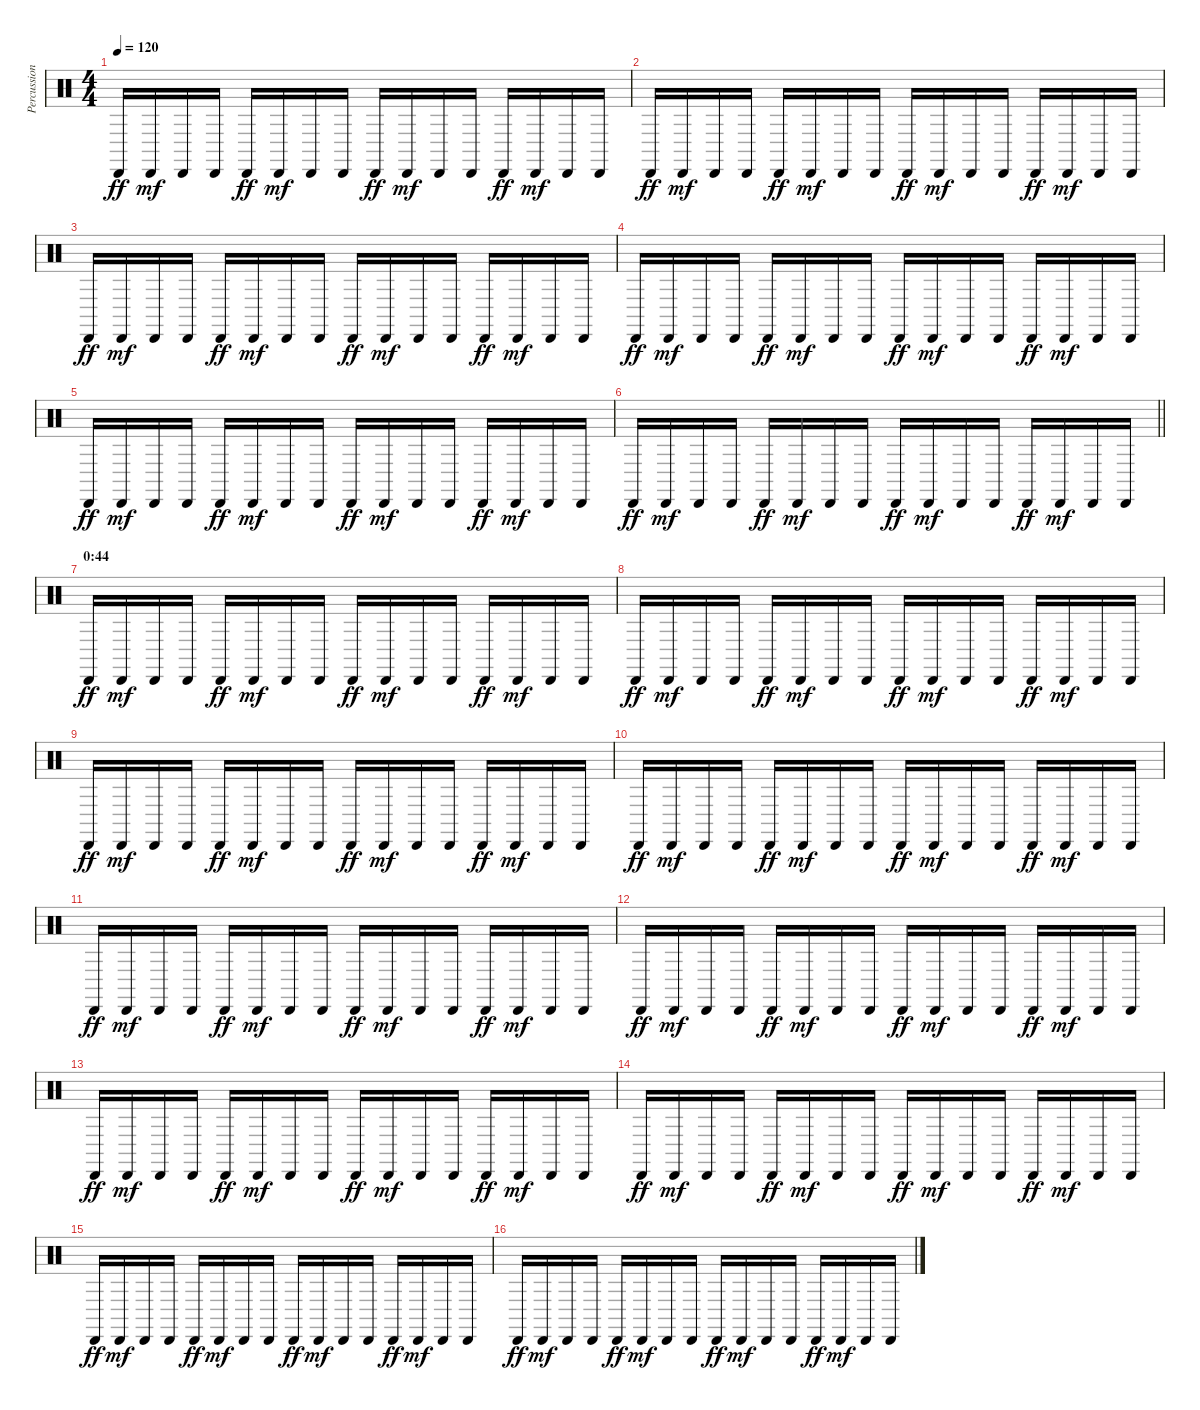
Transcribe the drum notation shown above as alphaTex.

\track ("Percussion" "Percussion") {instrument percussion}
\staff {score}
\articulation defaults
\ts (4 4)
\tempo 120
\clef neutral
\ks c "Cabasa (hit)".16{dy ff} "Cabasa (hit)".16{dy mf} "Cabasa (hit)".16 "Cabasa (hit)".16 "Cabasa (hit)".16{dy ff} "Cabasa (hit)".16{dy mf} "Cabasa (hit)".16 "Cabasa (hit)".16 "Cabasa (hit)".16{dy ff} "Cabasa (hit)".16{dy mf} "Cabasa (hit)".16 "Cabasa (hit)".16 "Cabasa (hit)".16{dy ff} "Cabasa (hit)".16{dy mf} "Cabasa (hit)".16 "Cabasa (hit)".16
|
"Cabasa (hit)".16{dy ff} "Cabasa (hit)".16{dy mf} "Cabasa (hit)".16 "Cabasa (hit)".16 "Cabasa (hit)".16{dy ff} "Cabasa (hit)".16{dy mf} "Cabasa (hit)".16 "Cabasa (hit)".16 "Cabasa (hit)".16{dy ff} "Cabasa (hit)".16{dy mf} "Cabasa (hit)".16 "Cabasa (hit)".16 "Cabasa (hit)".16{dy ff} "Cabasa (hit)".16{dy mf} "Cabasa (hit)".16 "Cabasa (hit)".16 |
"Cabasa (hit)".16{dy ff} "Cabasa (hit)".16{dy mf} "Cabasa (hit)".16 "Cabasa (hit)".16 "Cabasa (hit)".16{dy ff} "Cabasa (hit)".16{dy mf} "Cabasa (hit)".16 "Cabasa (hit)".16 "Cabasa (hit)".16{dy ff} "Cabasa (hit)".16{dy mf} "Cabasa (hit)".16 "Cabasa (hit)".16 "Cabasa (hit)".16{dy ff} "Cabasa (hit)".16{dy mf} "Cabasa (hit)".16 "Cabasa (hit)".16 |
"Cabasa (hit)".16{dy ff} "Cabasa (hit)".16{dy mf} "Cabasa (hit)".16 "Cabasa (hit)".16 "Cabasa (hit)".16{dy ff} "Cabasa (hit)".16{dy mf} "Cabasa (hit)".16 "Cabasa (hit)".16 "Cabasa (hit)".16{dy ff} "Cabasa (hit)".16{dy mf} "Cabasa (hit)".16 "Cabasa (hit)".16 "Cabasa (hit)".16{dy ff} "Cabasa (hit)".16{dy mf} "Cabasa (hit)".16 "Cabasa (hit)".16 |
"Cabasa (hit)".16{dy ff} "Cabasa (hit)".16{dy mf} "Cabasa (hit)".16 "Cabasa (hit)".16 "Cabasa (hit)".16{dy ff} "Cabasa (hit)".16{dy mf} "Cabasa (hit)".16 "Cabasa (hit)".16 "Cabasa (hit)".16{dy ff} "Cabasa (hit)".16{dy mf} "Cabasa (hit)".16 "Cabasa (hit)".16 "Cabasa (hit)".16{dy ff} "Cabasa (hit)".16{dy mf} "Cabasa (hit)".16 "Cabasa (hit)".16 |
\barLineRight lightlight "Cabasa (hit)".16{dy ff} "Cabasa (hit)".16{dy mf} "Cabasa (hit)".16 "Cabasa (hit)".16 "Cabasa (hit)".16{dy ff} "Cabasa (hit)".16{dy mf} "Cabasa (hit)".16 "Cabasa (hit)".16 "Cabasa (hit)".16{dy ff} "Cabasa (hit)".16{dy mf} "Cabasa (hit)".16 "Cabasa (hit)".16 "Cabasa (hit)".16{dy ff} "Cabasa (hit)".16{dy mf} "Cabasa (hit)".16 "Cabasa (hit)".16
|
\section ("" "0:44")
"Cabasa (hit)".16{dy ff} "Cabasa (hit)".16{dy mf} "Cabasa (hit)".16 "Cabasa (hit)".16 "Cabasa (hit)".16{dy ff} "Cabasa (hit)".16{dy mf} "Cabasa (hit)".16 "Cabasa (hit)".16 "Cabasa (hit)".16{dy ff} "Cabasa (hit)".16{dy mf} "Cabasa (hit)".16 "Cabasa (hit)".16 "Cabasa (hit)".16{dy ff} "Cabasa (hit)".16{dy mf} "Cabasa (hit)".16 "Cabasa (hit)".16 |
"Cabasa (hit)".16{dy ff} "Cabasa (hit)".16{dy mf} "Cabasa (hit)".16 "Cabasa (hit)".16 "Cabasa (hit)".16{dy ff} "Cabasa (hit)".16{dy mf} "Cabasa (hit)".16 "Cabasa (hit)".16 "Cabasa (hit)".16{dy ff} "Cabasa (hit)".16{dy mf} "Cabasa (hit)".16 "Cabasa (hit)".16 "Cabasa (hit)".16{dy ff} "Cabasa (hit)".16{dy mf} "Cabasa (hit)".16 "Cabasa (hit)".16 |
"Cabasa (hit)".16{dy ff} "Cabasa (hit)".16{dy mf} "Cabasa (hit)".16 "Cabasa (hit)".16 "Cabasa (hit)".16{dy ff} "Cabasa (hit)".16{dy mf} "Cabasa (hit)".16 "Cabasa (hit)".16 "Cabasa (hit)".16{dy ff} "Cabasa (hit)".16{dy mf} "Cabasa (hit)".16 "Cabasa (hit)".16 "Cabasa (hit)".16{dy ff} "Cabasa (hit)".16{dy mf} "Cabasa (hit)".16 "Cabasa (hit)".16 |
"Cabasa (hit)".16{dy ff} "Cabasa (hit)".16{dy mf} "Cabasa (hit)".16 "Cabasa (hit)".16 "Cabasa (hit)".16{dy ff} "Cabasa (hit)".16{dy mf} "Cabasa (hit)".16 "Cabasa (hit)".16 "Cabasa (hit)".16{dy ff} "Cabasa (hit)".16{dy mf} "Cabasa (hit)".16 "Cabasa (hit)".16 "Cabasa (hit)".16{dy ff} "Cabasa (hit)".16{dy mf} "Cabasa (hit)".16 "Cabasa (hit)".16 |
"Cabasa (hit)".16{dy ff} "Cabasa (hit)".16{dy mf} "Cabasa (hit)".16 "Cabasa (hit)".16 "Cabasa (hit)".16{dy ff} "Cabasa (hit)".16{dy mf} "Cabasa (hit)".16 "Cabasa (hit)".16 "Cabasa (hit)".16{dy ff} "Cabasa (hit)".16{dy mf} "Cabasa (hit)".16 "Cabasa (hit)".16 "Cabasa (hit)".16{dy ff} "Cabasa (hit)".16{dy mf} "Cabasa (hit)".16 "Cabasa (hit)".16 |
"Cabasa (hit)".16{dy ff} "Cabasa (hit)".16{dy mf} "Cabasa (hit)".16 "Cabasa (hit)".16 "Cabasa (hit)".16{dy ff} "Cabasa (hit)".16{dy mf} "Cabasa (hit)".16 "Cabasa (hit)".16 "Cabasa (hit)".16{dy ff} "Cabasa (hit)".16{dy mf} "Cabasa (hit)".16 "Cabasa (hit)".16 "Cabasa (hit)".16{dy ff} "Cabasa (hit)".16{dy mf} "Cabasa (hit)".16 "Cabasa (hit)".16 |
"Cabasa (hit)".16{dy ff} "Cabasa (hit)".16{dy mf} "Cabasa (hit)".16 "Cabasa (hit)".16 "Cabasa (hit)".16{dy ff} "Cabasa (hit)".16{dy mf} "Cabasa (hit)".16 "Cabasa (hit)".16 "Cabasa (hit)".16{dy ff} "Cabasa (hit)".16{dy mf} "Cabasa (hit)".16 "Cabasa (hit)".16 "Cabasa (hit)".16{dy ff} "Cabasa (hit)".16{dy mf} "Cabasa (hit)".16 "Cabasa (hit)".16 |
"Cabasa (hit)".16{dy ff} "Cabasa (hit)".16{dy mf} "Cabasa (hit)".16 "Cabasa (hit)".16 "Cabasa (hit)".16{dy ff} "Cabasa (hit)".16{dy mf} "Cabasa (hit)".16 "Cabasa (hit)".16 "Cabasa (hit)".16{dy ff} "Cabasa (hit)".16{dy mf} "Cabasa (hit)".16 "Cabasa (hit)".16 "Cabasa (hit)".16{dy ff} "Cabasa (hit)".16{dy mf} "Cabasa (hit)".16 "Cabasa (hit)".16 |
"Cabasa (hit)".16{dy ff} "Cabasa (hit)".16{dy mf} "Cabasa (hit)".16 "Cabasa (hit)".16 "Cabasa (hit)".16{dy ff} "Cabasa (hit)".16{dy mf} "Cabasa (hit)".16 "Cabasa (hit)".16 "Cabasa (hit)".16{dy ff} "Cabasa (hit)".16{dy mf} "Cabasa (hit)".16 "Cabasa (hit)".16 "Cabasa (hit)".16{dy ff} "Cabasa (hit)".16{dy mf} "Cabasa (hit)".16 "Cabasa (hit)".16 |
"Cabasa (hit)".16{dy ff} "Cabasa (hit)".16{dy mf} "Cabasa (hit)".16 "Cabasa (hit)".16 "Cabasa (hit)".16{dy ff} "Cabasa (hit)".16{dy mf} "Cabasa (hit)".16 "Cabasa (hit)".16 "Cabasa (hit)".16{dy ff} "Cabasa (hit)".16{dy mf} "Cabasa (hit)".16 "Cabasa (hit)".16 "Cabasa (hit)".16{dy ff} "Cabasa (hit)".16{dy mf} "Cabasa (hit)".16 "Cabasa (hit)".16
